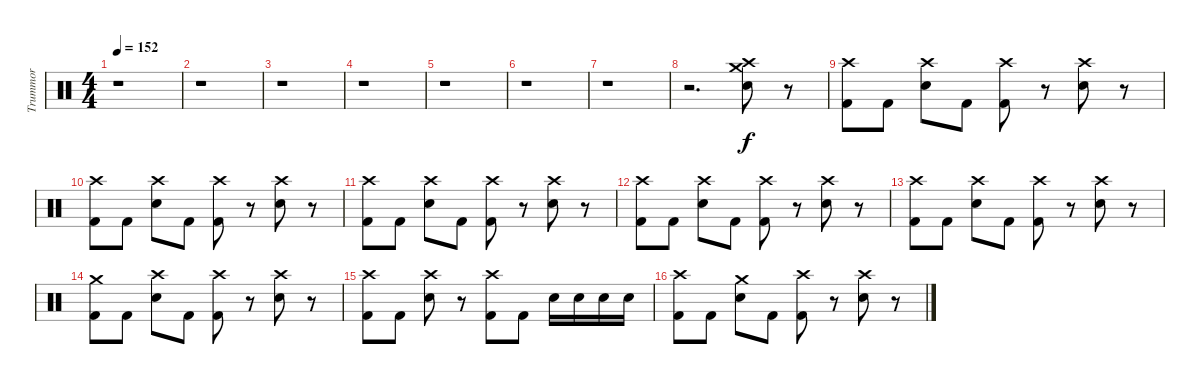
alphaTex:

\track ("Trummor" "Trummor") {instrument percussion}
\staff {score}
\articulation defaults
\ts (4 4)
\tempo 152
\clef neutral
\ks c
r.1{dy f} |
r.1 |
r.1 |
r.1 |
r.1 |
r.1 |
r.1 |
r.2{d} ("Electric Snare (hit)" "Crash high (hit)" "Crash medium (hit)").8 r.8 |
("Kick (hit) 2" "Crash high (hit)").8 "Kick (hit) 2".8 ("Electric Snare (hit)" "Crash high (hit)").8 "Kick (hit) 2".8 ("Kick (hit) 2" "Crash high (hit)").8 r.8 ("Electric Snare (hit)" "Crash high (hit)").8 r.8 |
("Kick (hit) 2" "Crash high (hit)").8 "Kick (hit) 2".8 ("Electric Snare (hit)" "Crash high (hit)").8 "Kick (hit) 2".8 ("Kick (hit) 2" "Crash high (hit)").8 r.8 ("Electric Snare (hit)" "Crash high (hit)").8 r.8 |
("Kick (hit) 2" "Crash high (hit)").8 "Kick (hit) 2".8 ("Electric Snare (hit)" "Crash high (hit)").8 "Kick (hit) 2".8 ("Kick (hit) 2" "Crash high (hit)").8 r.8 ("Electric Snare (hit)" "Crash high (hit)").8 r.8 |
("Kick (hit) 2" "Crash high (hit)").8 "Kick (hit) 2".8 ("Electric Snare (hit)" "Crash high (hit)").8 "Kick (hit) 2".8 ("Kick (hit) 2" "Crash high (hit)").8 r.8 ("Electric Snare (hit)" "Crash high (hit)").8 r.8 |
("Kick (hit) 2" "Crash high (hit)").8 "Kick (hit) 2".8 ("Electric Snare (hit)" "Crash high (hit)").8 "Kick (hit) 2".8 ("Kick (hit) 2" "Crash high (hit)").8 r.8 ("Electric Snare (hit)" "Crash high (hit)").8 r.8 |
("Kick (hit) 2" "Crash medium (hit)").8 "Kick (hit) 2".8 ("Crash high (hit)" "Electric Snare (hit)").8 "Kick (hit) 2".8 ("Kick (hit) 2" "Crash high (hit)").8 r.8 ("Crash high (hit)" "Electric Snare (hit)").8 r.8 |
("Kick (hit) 2" "Crash high (hit)").8 "Kick (hit) 2".8 ("Electric Snare (hit)" "Crash high (hit)").8 r.8 ("Kick (hit) 2" "Crash high (hit)").8 "Kick (hit) 2".8 "Electric Snare (hit)".16 "Electric Snare (hit)".16 "Electric Snare (hit)".16 "Electric Snare (hit)".16 |
("Kick (hit) 2" "Crash high (hit)").8 "Kick (hit) 2".8 ("Electric Snare (hit)" "Crash medium (hit)").8 "Kick (hit) 2".8 ("Kick (hit) 2" "Crash high (hit)").8 r.8 ("Electric Snare (hit)" "Crash high (hit)").8 r.8
